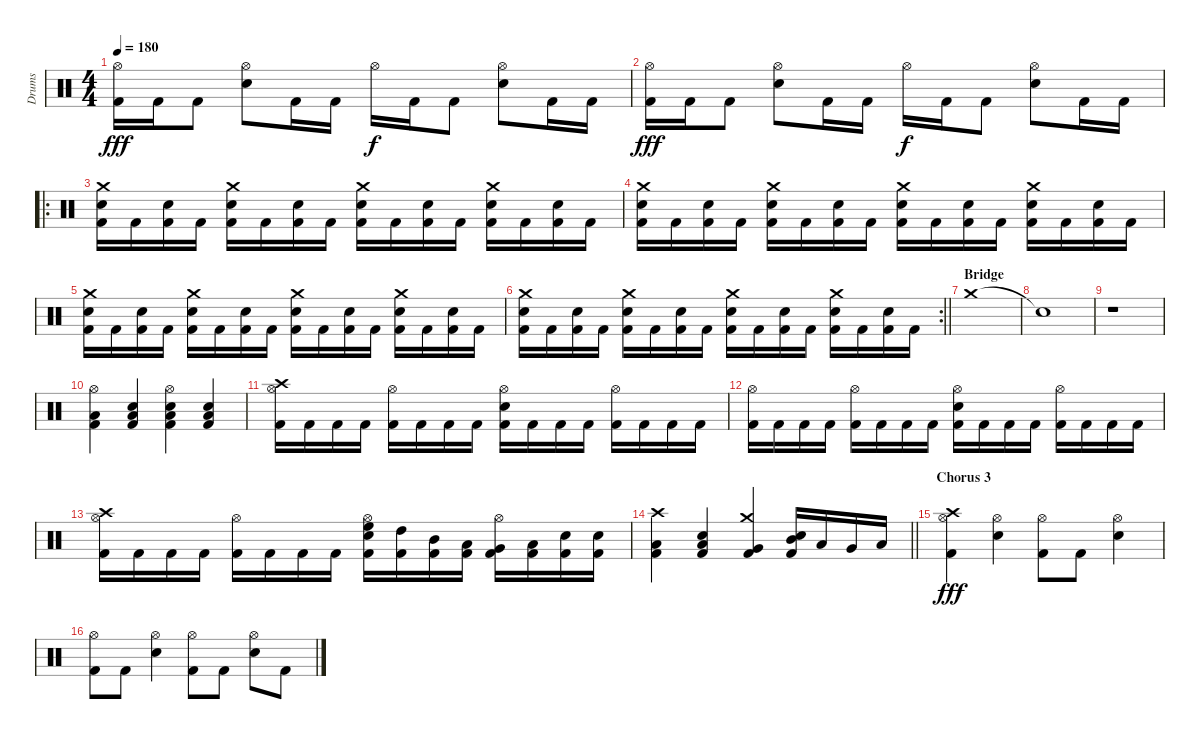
\track ("Drums" "Drums") {instrument percussion}
\staff {score}
\articulation defaults
\ts (4 4)
\tempo 180
\clef neutral
\ks c
("Hi-Hat (open)" "Kick (hit) 2").16{dy fff} "Kick (hit) 2".16 "Kick (hit) 2".8 ("Hi-Hat (open)" "Snare (hit) 2").8 "Kick (hit) 2".16 "Kick (hit) 2".16 "Hi-Hat (open)".16{dy f} "Kick (hit) 2".16 "Kick (hit) 2".8 ("Hi-Hat (open)" "Snare (hit) 2").8 "Kick (hit) 2".16 "Kick (hit) 2".16 |
("Hi-Hat (open)" "Kick (hit) 2").16{dy fff} "Kick (hit) 2".16 "Kick (hit) 2".8 ("Hi-Hat (open)" "Snare (hit) 2").8 "Kick (hit) 2".16 "Kick (hit) 2".16 "Hi-Hat (open)".16{dy f} "Kick (hit) 2".16 "Kick (hit) 2".8 ("Hi-Hat (open)" "Snare (hit) 2").8 "Kick (hit) 2".16 "Kick (hit) 2".16 |
\ro
("Crash medium (hit)" "Snare (hit) 2" "Kick (hit) 2").16 "Kick (hit) 2".16 ("Snare (hit) 2" "Kick (hit) 2").16 "Kick (hit) 2".16 ("Crash medium (hit)" "Snare (hit) 2" "Kick (hit) 2").16 "Kick (hit) 2".16 ("Snare (hit) 2" "Kick (hit) 2").16 "Kick (hit) 2".16 ("Crash medium (hit)" "Snare (hit) 2" "Kick (hit) 2").16 "Kick (hit) 2".16 ("Snare (hit) 2" "Kick (hit) 2").16 "Kick (hit) 2".16 ("Crash medium (hit)" "Snare (hit) 2" "Kick (hit) 2").16 "Kick (hit) 2".16 ("Snare (hit) 2" "Kick (hit) 2").16 "Kick (hit) 2".16 |
("Crash medium (hit)" "Snare (hit) 2" "Kick (hit) 2").16 "Kick (hit) 2".16 ("Snare (hit) 2" "Kick (hit) 2").16 "Kick (hit) 2".16 ("Crash medium (hit)" "Snare (hit) 2" "Kick (hit) 2").16 "Kick (hit) 2".16 ("Snare (hit) 2" "Kick (hit) 2").16 "Kick (hit) 2".16 ("Crash medium (hit)" "Snare (hit) 2" "Kick (hit) 2").16 "Kick (hit) 2".16 ("Snare (hit) 2" "Kick (hit) 2").16 "Kick (hit) 2".16 ("Crash medium (hit)" "Snare (hit) 2" "Kick (hit) 2").16 "Kick (hit) 2".16 ("Snare (hit) 2" "Kick (hit) 2").16 "Kick (hit) 2".16 |
("Crash medium (hit)" "Snare (hit) 2" "Kick (hit) 2").16 "Kick (hit) 2".16 ("Snare (hit) 2" "Kick (hit) 2").16 "Kick (hit) 2".16 ("Crash medium (hit)" "Snare (hit) 2" "Kick (hit) 2").16 "Kick (hit) 2".16 ("Snare (hit) 2" "Kick (hit) 2").16 "Kick (hit) 2".16 ("Crash medium (hit)" "Snare (hit) 2" "Kick (hit) 2").16 "Kick (hit) 2".16 ("Snare (hit) 2" "Kick (hit) 2").16 "Kick (hit) 2".16 ("Crash medium (hit)" "Snare (hit) 2" "Kick (hit) 2").16 "Kick (hit) 2".16 ("Snare (hit) 2" "Kick (hit) 2").16 "Kick (hit) 2".16 |
\rc 2
\barLineRight lightlight
("Crash medium (hit)" "Snare (hit) 2" "Kick (hit) 2").16 "Kick (hit) 2".16 ("Snare (hit) 2" "Kick (hit) 2").16 "Kick (hit) 2".16 ("Crash medium (hit)" "Snare (hit) 2" "Kick (hit) 2").16 "Kick (hit) 2".16 ("Snare (hit) 2" "Kick (hit) 2").16 "Kick (hit) 2".16 ("Crash medium (hit)" "Snare (hit) 2" "Kick (hit) 2").16 "Kick (hit) 2".16 ("Snare (hit) 2" "Kick (hit) 2").16 "Kick (hit) 2".16 ("Crash medium (hit)" "Snare (hit) 2" "Kick (hit) 2").16 "Kick (hit) 2".16 ("Snare (hit) 2" "Kick (hit) 2").16 "Kick (hit) 2".16 |
\section ("" "Bridge")
"Crash medium (hit)".1 |
"Snare (hit)"{t}.1 |
r.1 |
("Hi-Hat (open)" "Low Floor Tom (hit)" "Kick (hit) 2").4 ("Low Floor Tom (hit)" "Snare (hit) 2" "Kick (hit) 2").4 ("Hi-Hat (open)" "Low Floor Tom (hit)" "Snare (hit) 2" "Kick (hit) 2").4 ("Low Floor Tom (hit)" "Snare (hit) 2" "Kick (hit) 2").4 |
("Crash high (hit)" "Hi-Hat (open)" "Kick (hit) 2").16 "Kick (hit) 2".16 "Kick (hit) 2".16 "Kick (hit) 2".16 ("Hi-Hat (open)" "Kick (hit) 2").16 "Kick (hit) 2".16 "Kick (hit) 2".16 "Kick (hit) 2".16 ("Hi-Hat (open)" "Snare (hit) 2" "Kick (hit) 2").16 "Kick (hit) 2".16 "Kick (hit) 2".16 "Kick (hit) 2".16 ("Hi-Hat (open)" "Kick (hit) 2").16 "Kick (hit) 2".16 "Kick (hit) 2".16 "Kick (hit) 2".16 |
("Hi-Hat (open)" "Kick (hit) 2").16 "Kick (hit) 2".16 "Kick (hit) 2".16 "Kick (hit) 2".16 ("Hi-Hat (open)" "Kick (hit) 2").16 "Kick (hit) 2".16 "Kick (hit) 2".16 "Kick (hit) 2".16 ("Hi-Hat (open)" "Snare (hit) 2" "Kick (hit) 2").16 "Kick (hit) 2".16 "Kick (hit) 2".16 "Kick (hit) 2".16 ("Hi-Hat (open)" "Kick (hit) 2").16 "Kick (hit) 2".16 "Kick (hit) 2".16 "Kick (hit) 2".16 |
("Crash high (hit)" "Hi-Hat (open)" "Kick (hit) 2").16 "Kick (hit) 2".16 "Kick (hit) 2".16 "Kick (hit) 2".16 ("Hi-Hat (open)" "Kick (hit) 2").16 "Kick (hit) 2".16 "Kick (hit) 2".16 "Kick (hit) 2".16 ("Hi-Hat (open)" "High Floor Tom (hit)" "Snare (hit) 2" "Kick (hit) 2").16 ("High Tom (hit)" "Kick (hit) 2").16 ("Mid Tom (hit)" "Kick (hit) 2").16 ("Low Tom (hit)" "Kick (hit) 2").16 ("Hi-Hat (open)" "Very Low Tom (hit)" "Kick (hit) 2").16 ("Low Floor Tom (hit)" "Kick (hit) 2").16 ("Electric Snare (hit)" "Kick (hit) 2").16 ("Snare (hit) 2" "Kick (hit) 2").16 |
\barLineRight lightlight
("Crash high (hit)" "Low Floor Tom (hit)" "Kick (hit) 2").4 ("Low Floor Tom (hit)" "Snare (hit) 2" "Kick (hit) 2").4 ("Crash medium (hit)" "Very Low Tom (hit)" "Kick (hit) 2").4 ("Mid Tom (hit)" "Snare (hit) 2" "Kick (hit) 2").16 "Low Tom (hit)".16 "Very Low Tom (hit)".16 "Low Floor Tom (hit)".16 |
\section ("" "Chorus 3")
("Crash high (hit)" "Hi-Hat (open)" "Kick (hit) 2").4{dy fff} ("Hi-Hat (open)" "Snare (hit) 2").4 ("Hi-Hat (open)" "Kick (hit) 2").8 "Kick (hit) 2".8 ("Hi-Hat (open)" "Snare (hit) 2").4 |
("Hi-Hat (open)" "Kick (hit) 2").8 "Kick (hit) 2".8 ("Hi-Hat (open)" "Snare (hit) 2").4 ("Hi-Hat (open)" "Kick (hit) 2").8 "Kick (hit) 2".8 ("Hi-Hat (open)" "Snare (hit) 2").8 "Kick (hit) 2".8
